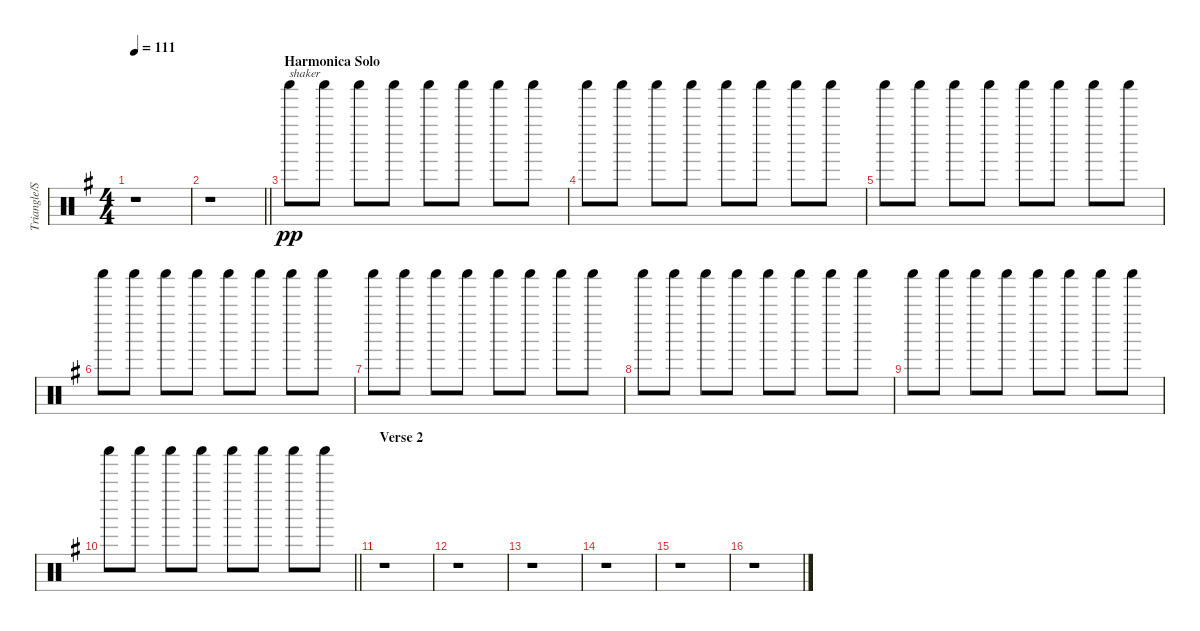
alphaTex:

\track ("Triangle/Shaker" "Triangle/S") {instrument percussion}
\staff {score}
\articulation defaults
\ts (4 4)
\tempo 111
\clef neutral
\ks g
r.1{dy pp} |
\barLineRight lightlight
r.1 |
\section ("" "Harmonica Solo")
"Shaker (hit)".8{txt "shaker"} "Shaker (hit)".8 "Shaker (hit)".8 "Shaker (hit)".8 "Shaker (hit)".8 "Shaker (hit)".8 "Shaker (hit)".8 "Shaker (hit)".8 |
"Shaker (hit)".8 "Shaker (hit)".8 "Shaker (hit)".8 "Shaker (hit)".8 "Shaker (hit)".8 "Shaker (hit)".8 "Shaker (hit)".8 "Shaker (hit)".8 |
"Shaker (hit)".8 "Shaker (hit)".8 "Shaker (hit)".8 "Shaker (hit)".8 "Shaker (hit)".8 "Shaker (hit)".8 "Shaker (hit)".8 "Shaker (hit)".8 |
"Shaker (hit)".8 "Shaker (hit)".8 "Shaker (hit)".8 "Shaker (hit)".8 "Shaker (hit)".8 "Shaker (hit)".8 "Shaker (hit)".8 "Shaker (hit)".8 |
"Shaker (hit)".8 "Shaker (hit)".8 "Shaker (hit)".8 "Shaker (hit)".8 "Shaker (hit)".8 "Shaker (hit)".8 "Shaker (hit)".8 "Shaker (hit)".8 |
"Shaker (hit)".8 "Shaker (hit)".8 "Shaker (hit)".8 "Shaker (hit)".8 "Shaker (hit)".8 "Shaker (hit)".8 "Shaker (hit)".8 "Shaker (hit)".8 |
"Shaker (hit)".8 "Shaker (hit)".8 "Shaker (hit)".8 "Shaker (hit)".8 "Shaker (hit)".8 "Shaker (hit)".8 "Shaker (hit)".8 "Shaker (hit)".8 |
\barLineRight lightlight "Shaker (hit)".8 "Shaker (hit)".8 "Shaker (hit)".8 "Shaker (hit)".8 "Shaker (hit)".8 "Shaker (hit)".8 "Shaker (hit)".8 "Shaker (hit)".8
|
\section ("" "Verse 2")
r.1 |
r.1 |
r.1 |
r.1 |
r.1 |
r.1
